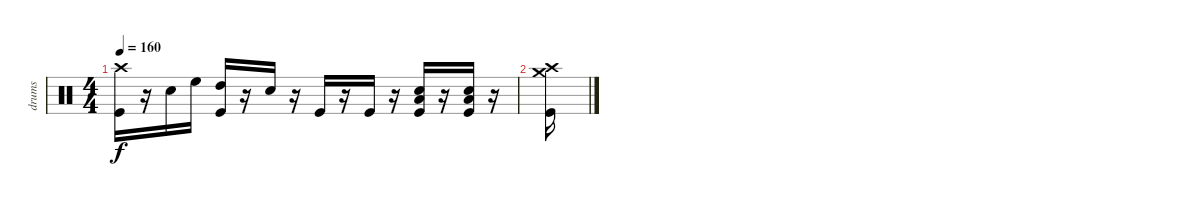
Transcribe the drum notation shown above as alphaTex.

\track ("drums" "drums") {instrument percussion}
\staff {score}
\articulation defaults
\ts (4 4)
\tempo 160
\clef neutral
\ks c
("Crash high (hit)" "Kick (hit)").16{dy f} r.16 "Electric Snare (hit)".16 "High Floor Tom (hit)".16 ("High Tom (hit)" "Kick (hit)").16 r.16 "Electric Snare (hit)".16 r.16 "Kick (hit)".16 r.16 "Kick (hit)".16 r.16 ("Low Tom (hit)" "Electric Snare (hit)" "Kick (hit)").16 r.16 ("Low Tom (hit)" "Electric Snare (hit)" "Kick (hit)").16 r.16 |
("Crash high (hit)" "Crash medium (hit)" "Kick (hit)").16
